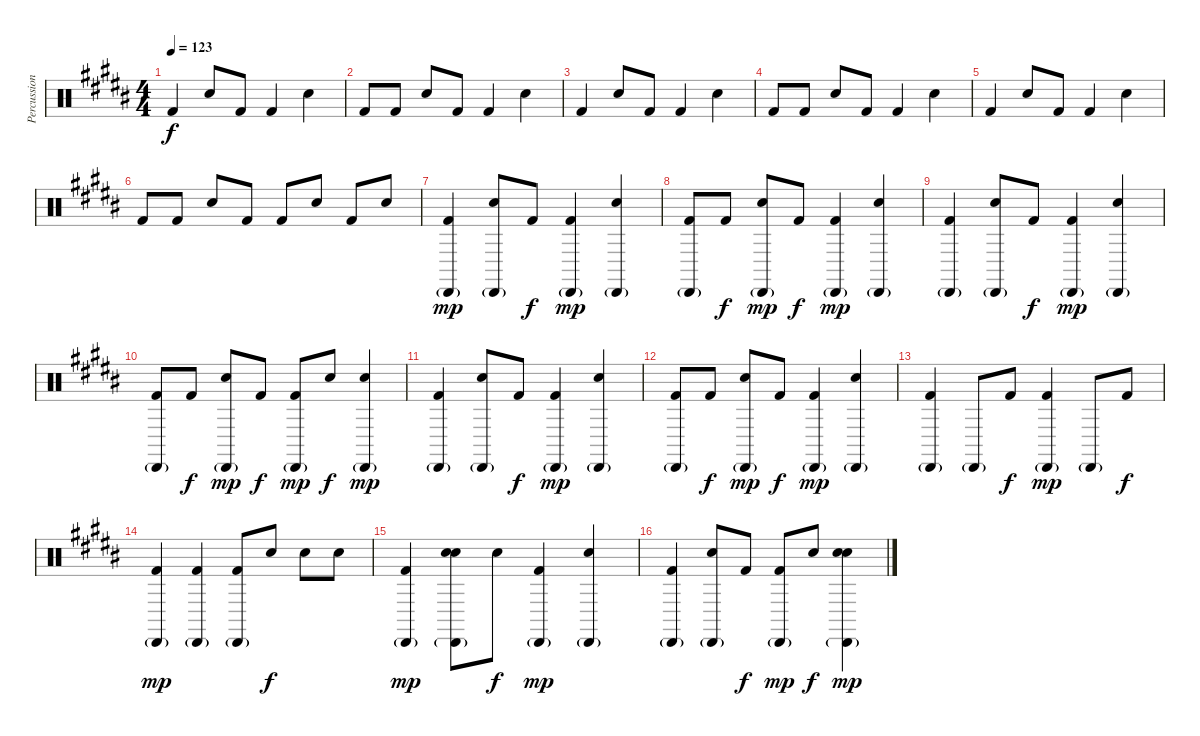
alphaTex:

\track ("Percussion" "Percussion") {instrument percussion}
\staff {score}
\articulation defaults
\ts (4 4)
\tempo 123
\clef neutral
\ks g#minor "Kick (hit) 2".4{dy f} "Hand Clap (hit)".8 "Kick (hit) 2".8 "Kick (hit) 2".4 "Hand Clap (hit)".4
|
"Kick (hit) 2".8 "Kick (hit) 2".8 "Hand Clap (hit)".8 "Kick (hit) 2".8 "Kick (hit) 2".4 "Hand Clap (hit)".4 |
"Kick (hit) 2".4 "Hand Clap (hit)".8 "Kick (hit) 2".8 "Kick (hit) 2".4 "Hand Clap (hit)".4 |
"Kick (hit) 2".8 "Kick (hit) 2".8 "Hand Clap (hit)".8 "Kick (hit) 2".8 "Kick (hit) 2".4 "Hand Clap (hit)".4 |
"Kick (hit) 2".4 "Hand Clap (hit)".8 "Kick (hit) 2".8 "Kick (hit) 2".4 "Hand Clap (hit)".4 |
"Kick (hit) 2".8 "Kick (hit) 2".8 "Hand Clap (hit)".8 "Kick (hit) 2".8 "Kick (hit) 2".8 "Hand Clap (hit)".8 "Kick (hit) 2".8 "Hand Clap (hit)".8 |
("Cabasa (hit)"{g} "Kick (hit) 2").4{dy mp} ("Cabasa (hit)"{g} "Hand Clap (hit)").8 "Kick (hit) 2".8{dy f} ("Cabasa (hit)"{g} "Kick (hit) 2").4{dy mp} ("Cabasa (hit)"{g} "Hand Clap (hit)").4 |
("Cabasa (hit)"{g} "Kick (hit) 2").8 "Kick (hit) 2".8{dy f} ("Cabasa (hit)"{g} "Hand Clap (hit)").8{dy mp} "Kick (hit) 2".8{dy f} ("Cabasa (hit)"{g} "Kick (hit) 2").4{dy mp} ("Cabasa (hit)"{g} "Hand Clap (hit)").4 |
("Cabasa (hit)"{g} "Kick (hit) 2").4 ("Cabasa (hit)"{g} "Hand Clap (hit)").8 "Kick (hit) 2".8{dy f} ("Cabasa (hit)"{g} "Kick (hit) 2").4{dy mp} ("Cabasa (hit)"{g} "Hand Clap (hit)").4 |
("Cabasa (hit)"{g} "Kick (hit) 2").8 "Kick (hit) 2".8{dy f} ("Cabasa (hit)"{g} "Hand Clap (hit)").8{dy mp} "Kick (hit) 2".8{dy f} ("Cabasa (hit)"{g} "Kick (hit) 2").8{dy mp} "Hand Clap (hit)".8{dy f} ("Cabasa (hit)"{g} "Hand Clap (hit)").4{dy mp} |
("Cabasa (hit)"{g} "Kick (hit) 2").4 ("Cabasa (hit)"{g} "Hand Clap (hit)").8 "Kick (hit) 2".8{dy f} ("Cabasa (hit)"{g} "Kick (hit) 2").4{dy mp} ("Cabasa (hit)"{g} "Hand Clap (hit)").4 |
("Cabasa (hit)"{g} "Kick (hit) 2").8 "Kick (hit) 2".8{dy f} ("Cabasa (hit)"{g} "Hand Clap (hit)").8{dy mp} "Kick (hit) 2".8{dy f} ("Cabasa (hit)"{g} "Kick (hit) 2").4{dy mp} ("Cabasa (hit)"{g} "Hand Clap (hit)").4 |
("Cabasa (hit)"{g} "Kick (hit) 2").4 "Cabasa (hit)"{g}.8 "Kick (hit) 2".8{dy f} ("Cabasa (hit)"{g} "Kick (hit) 2").4{dy mp} "Cabasa (hit)"{g}.8 "Kick (hit) 2".8{dy f} |
("Cabasa (hit)"{g} "Kick (hit) 2").4{dy mp} ("Cabasa (hit)"{g} "Kick (hit) 2").4 ("Cabasa (hit)"{g} "Kick (hit) 2").8 "Hand Clap (hit)".8{dy f} "Snare (hit) 2".8 "Hand Clap (hit)".8 |
("Cabasa (hit)"{g} "Kick (hit) 2").4{dy mp} ("Cabasa (hit)"{g} "Hand Clap (hit)" "Snare (hit) 2").8 "Hand Clap (hit)".8{dy f} ("Cabasa (hit)"{g} "Kick (hit) 2").4{dy mp} ("Cabasa (hit)"{g} "Snare (hit) 2").4 |
("Cabasa (hit)"{g} "Kick (hit) 2").4 ("Cabasa (hit)"{g} "Snare (hit) 2").8 "Kick (hit) 2".8{dy f} ("Cabasa (hit)"{g} "Kick (hit) 2").8{dy mp} "Hand Clap (hit)".8{dy f} ("Cabasa (hit)"{g} "Hand Clap (hit)" "Snare (hit) 2").4{dy mp}
